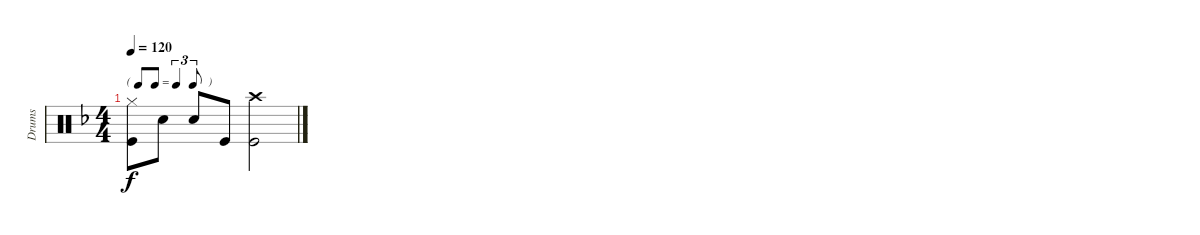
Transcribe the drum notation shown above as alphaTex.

\track ("Drums" "Drums") {instrument percussion bank 10}
\staff {score}
\articulation defaults
\ts (4 4)
\tf triplet8th
\tempo 120
\clef neutral
\ks f
("Hi-Hat (closed)" "Kick (hit)").8{dy f} "Snare (hit) 2".8 "Snare (hit) 2".8 "Kick (hit)".8 ("Crash high (hit)" "Kick (hit)").2
